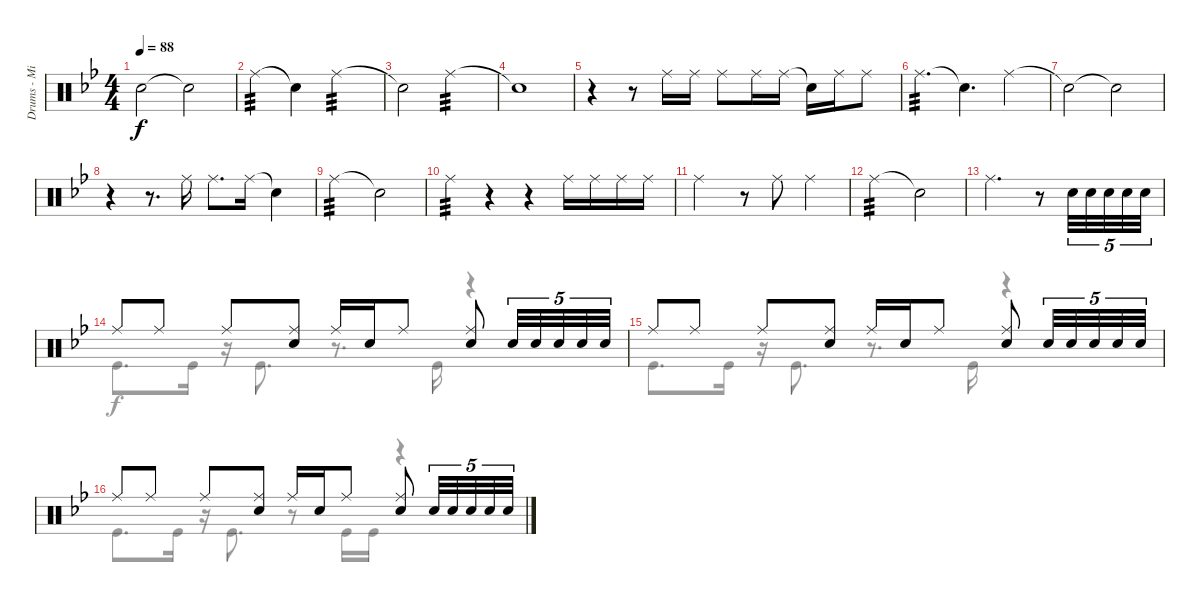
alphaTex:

\track ("Drums - Mike Portnoy" "Drums - Mi") {instrument percussion}
\staff {score}
\articulation defaults
\voice
\ts (4 4)
\tempo 88
\clef neutral
\ks bb "Snare (hit)"{t}.2{dy f volume 13} "Snare (hit)"{t}.2{volume 0}
|
"Ride (middle)".4{tp 3 volume 13} "Snare (hit)"{t}.4{volume 0} "Ride (middle)".2{tp 3 volume 13} |
"Snare (hit)"{t}.2{volume 0} "Ride (middle)".2{tp 3 volume 13} |
"Snare (hit)"{t}.1{volume 0} |
r.4{volume 13} r.8 "Ride (middle)".16 "Ride (middle)".16 "Ride (middle)".8 "Ride (middle)".16 "Ride (middle)".16 "Snare (hit)"{t}.16 "Ride (middle)".16 "Ride (middle)".8{volume 0} |
"Ride (middle)".4{d tp 3 volume 13} "Snare (hit)"{t}.4{d volume 0} "Ride (middle)".4{volume 13} |
"Snare (hit)"{t}.2 "Snare (hit)"{t}.2{volume 0} |
r.4 r.8{d} "Ride (middle)".16{volume 13} "Ride (middle)".8{d} "Ride (middle)".16 "Snare (hit)"{t}.4{volume 0} |
"Ride (middle)".2{tp 3 volume 13} "Snare (hit)"{t}.2{volume 0} |
"Ride (middle)".4{tp 3} r.4 r.4 "Ride (middle)".16{volume 13} "Ride (middle)".16 "Ride (middle)".16 "Ride (middle)".16 |
"Ride (middle)".2 r.8 "Ride (middle)".8 "Ride (middle)".4{volume 0} |
"Ride (middle)".2{tp 3 volume 13} "Snare (hit)"{t}.2{volume 0} |
"Ride (middle)".2{d volume 13} r.8 "Snare (hit) 2".32{tu (5 4)} "Snare (hit) 2".32{tu (5 4)} "Snare (hit) 2".32{tu (5 4)} "Snare (hit) 2".32{tu (5 4)} "Snare (hit) 2".32{tu (5 4)} |
"Ride (middle)".8 "Ride (middle)".8 "Ride (middle)".8 ("Ride (middle)" "Snare (hit) 2").8 "Ride (middle)".16 "Snare (hit) 2".16 "Ride (middle)".8 ("Ride (middle)" "Snare (hit) 2").8 "Snare (hit) 2".32{tu (5 4)} "Snare (hit) 2".32{tu (5 4)} "Snare (hit) 2".32{tu (5 4)} "Snare (hit) 2".32{tu (5 4)} "Snare (hit) 2".32{tu (5 4)} |
"Ride (middle)".8 "Ride (middle)".8 "Ride (middle)".8 ("Ride (middle)" "Snare (hit) 2").8 "Ride (middle)".16 "Snare (hit) 2".16 "Ride (middle)".8 ("Ride (middle)" "Snare (hit) 2").8 "Snare (hit) 2".32{tu (5 4)} "Snare (hit) 2".32{tu (5 4)} "Snare (hit) 2".32{tu (5 4)} "Snare (hit) 2".32{tu (5 4)} "Snare (hit) 2".32{tu (5 4)} |
"Ride (middle)".8 "Ride (middle)".8 "Ride (middle)".8 ("Ride (middle)" "Snare (hit) 2").8 "Ride (middle)".16 "Snare (hit) 2".16 "Ride (middle)".8 ("Ride (middle)" "Snare (hit) 2").8 "Snare (hit) 2".32{tu (5 4)} "Snare (hit) 2".32{tu (5 4)} "Snare (hit) 2".32{tu (5 4)} "Snare (hit) 2".32{tu (5 4)} "Snare (hit) 2".32{tu (5 4)}
\voice
\clef neutral
\ottava regular
\simile none
\ks bb
|
|
|
|
|
|
|
|
|
|
|
|
|
"Kick (hit)".8{d} "Kick (hit)".16 r.16 "Kick (hit)".8{d} r.8{d} "Kick (hit)".16 r.4 |
"Kick (hit)".8{d} "Kick (hit)".16 r.16 "Kick (hit)".8{d} r.8{d} "Kick (hit)".16 r.4 |
"Kick (hit)".8{d} "Kick (hit)".16 r.16 "Kick (hit)".8{d} r.8 "Kick (hit)".16 "Kick (hit)".16 r.4
